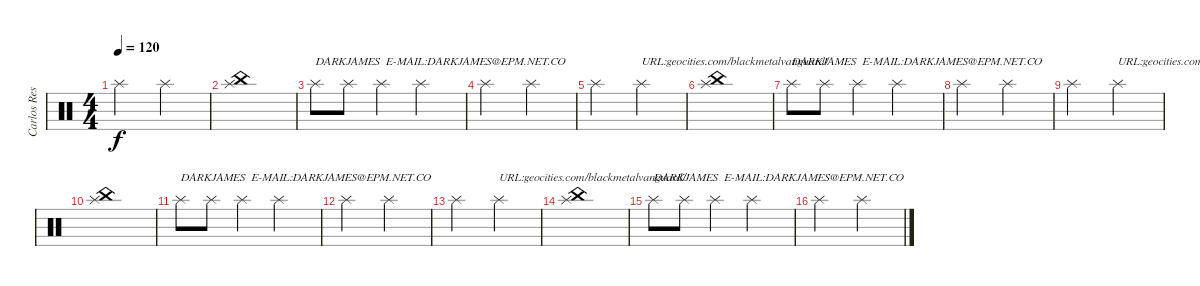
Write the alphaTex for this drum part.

\track ("Carlos Restrepo" "Carlos Res") {instrument percussion}
\staff {score}
\articulation defaults
\ts (4 4)
\tempo 120
\clef neutral
\ks c "Splash (hit)".2{dy f} "Splash (hit)".2
|
("Splash (hit)" "China (hit)").1 |
"Splash (hit)".8{txt "DARKJAMES  E-MAIL:DARKJAMES@EPM.NET.CO"} "Splash (hit)".8 "Splash (hit)".4 "Splash (hit)".2 |
"Splash (hit)".2 "Splash (hit)".2 |
"Splash (hit)".2 "Splash (hit)".2{txt "URL:geocities.com/blackmetalvanguard/"} |
("Splash (hit)" "China (hit)").1 |
"Splash (hit)".8{txt "DARKJAMES  E-MAIL:DARKJAMES@EPM.NET.CO"} "Splash (hit)".8 "Splash (hit)".4 "Splash (hit)".2 |
"Splash (hit)".2 "Splash (hit)".2 |
"Splash (hit)".2 "Splash (hit)".2{txt "URL:geocities.com/blackmetalvanguard/"} |
("Splash (hit)" "China (hit)").1 |
"Splash (hit)".8{txt "DARKJAMES  E-MAIL:DARKJAMES@EPM.NET.CO"} "Splash (hit)".8 "Splash (hit)".4 "Splash (hit)".2 |
"Splash (hit)".2 "Splash (hit)".2 |
"Splash (hit)".2 "Splash (hit)".2{txt "URL:geocities.com/blackmetalvanguard/"} |
("Splash (hit)" "China (hit)").1 |
"Splash (hit)".8{txt "DARKJAMES  E-MAIL:DARKJAMES@EPM.NET.CO"} "Splash (hit)".8 "Splash (hit)".4 "Splash (hit)".2 |
"Splash (hit)".2 "Splash (hit)".2
